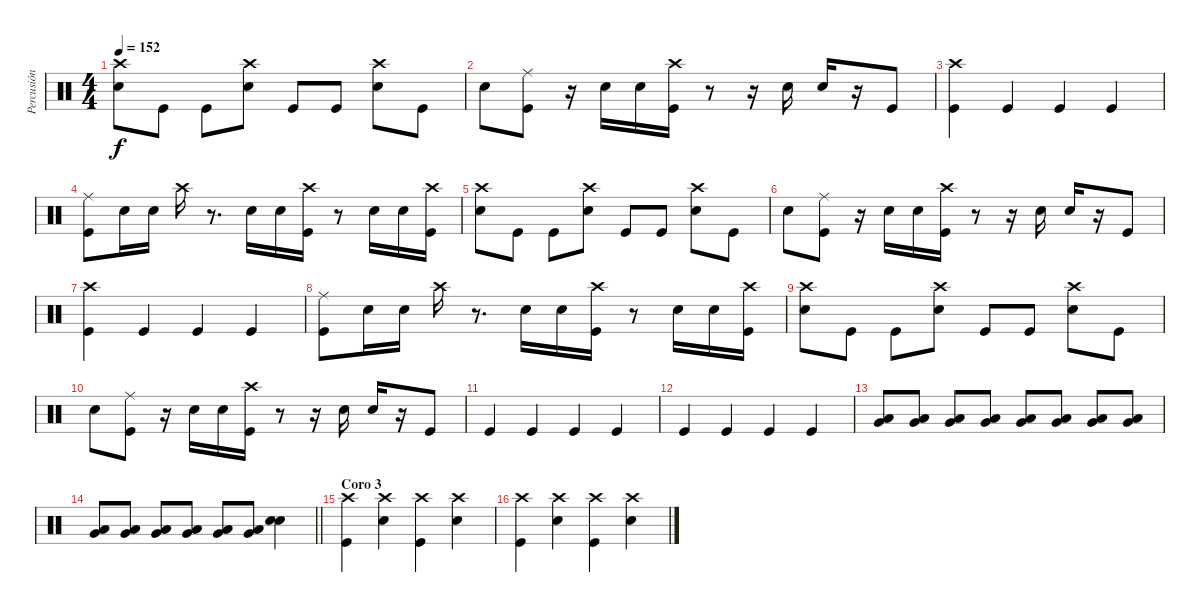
\track ("Percusión" "Percusión") {instrument percussion}
\staff {score}
\articulation defaults
\ts (4 4)
\tempo 152
\clef neutral
\ks c
("Snare (hit) 2" "Crash high (hit)").8{dy f} "Kick (hit)".8 "Kick (hit)".8 ("Snare (hit) 2" "Crash high (hit)").8 "Kick (hit)".8 "Kick (hit)".8 ("Snare (hit) 2" "Crash high (hit)").8 "Kick (hit)".8 |
"Snare (hit) 2".8 ("Kick (hit)" "Ride (middle)").8 r.16 "Snare (hit) 2".16 "Snare (hit) 2".16 ("Kick (hit)" "Crash high (hit)").16 r.8 r.16 "Snare (hit) 2".16 "Snare (hit) 2".16 r.16 "Kick (hit)".8 |
("Crash high (hit)" "Kick (hit)").4 "Kick (hit)".4 "Kick (hit)".4 "Kick (hit)".4 |
("Kick (hit)" "Ride (middle)").8 "Snare (hit) 2".16 "Snare (hit) 2".16 "Crash high (hit)".16 r.8{d} "Snare (hit) 2".16 "Snare (hit) 2".16 ("Kick (hit)" "Crash high (hit)").16 r.8 "Snare (hit) 2".16 "Snare (hit) 2".16 ("Kick (hit)" "Crash high (hit)").16 |
("Snare (hit) 2" "Crash high (hit)").8 "Kick (hit)".8 "Kick (hit)".8 ("Snare (hit) 2" "Crash high (hit)").8 "Kick (hit)".8 "Kick (hit)".8 ("Snare (hit) 2" "Crash high (hit)").8 "Kick (hit)".8 |
"Snare (hit) 2".8 ("Kick (hit)" "Ride (middle)").8 r.16 "Snare (hit) 2".16 "Snare (hit) 2".16 ("Kick (hit)" "Crash high (hit)").16 r.8 r.16 "Snare (hit) 2".16 "Snare (hit) 2".16 r.16 "Kick (hit)".8 |
("Crash high (hit)" "Kick (hit)").4 "Kick (hit)".4 "Kick (hit)".4 "Kick (hit)".4 |
("Kick (hit)" "Ride (middle)").8 "Snare (hit) 2".16 "Snare (hit) 2".16 "Crash high (hit)".16 r.8{d} "Snare (hit) 2".16 "Snare (hit) 2".16 ("Kick (hit)" "Crash high (hit)").16 r.8 "Snare (hit) 2".16 "Snare (hit) 2".16 ("Kick (hit)" "Crash high (hit)").16 |
("Snare (hit) 2" "Crash high (hit)").8 "Kick (hit)".8 "Kick (hit)".8 ("Snare (hit) 2" "Crash high (hit)").8 "Kick (hit)".8 "Kick (hit)".8 ("Snare (hit) 2" "Crash high (hit)").8 "Kick (hit)".8 |
"Snare (hit) 2".8 ("Kick (hit)" "Ride (middle)").8 r.16 "Snare (hit) 2".16 "Snare (hit) 2".16 ("Kick (hit)" "Crash high (hit)").16 r.8 r.16 "Snare (hit) 2".16 "Snare (hit) 2".16 r.16 "Kick (hit)".8 |
"Kick (hit)".4 "Kick (hit)".4 "Kick (hit)".4 "Kick (hit)".4 |
"Kick (hit)".4 "Kick (hit)".4 "Kick (hit)".4 "Kick (hit)".4 |
("Low Floor Tom (hit)" "Very Low Tom (hit)").8 ("Low Floor Tom (hit)" "Very Low Tom (hit)").8 ("Low Floor Tom (hit)" "Very Low Tom (hit)").8 ("Low Floor Tom (hit)" "Very Low Tom (hit)").8 ("Low Floor Tom (hit)" "Very Low Tom (hit)").8 ("Low Floor Tom (hit)" "Very Low Tom (hit)").8 ("Low Floor Tom (hit)" "Very Low Tom (hit)").8 ("Low Floor Tom (hit)" "Very Low Tom (hit)").8 |
\barLineRight lightlight
("Low Floor Tom (hit)" "Very Low Tom (hit)").8 ("Low Floor Tom (hit)" "Very Low Tom (hit)").8 ("Low Floor Tom (hit)" "Very Low Tom (hit)").8 ("Low Floor Tom (hit)" "Very Low Tom (hit)").8 ("Low Floor Tom (hit)" "Very Low Tom (hit)").8 ("Low Floor Tom (hit)" "Very Low Tom (hit)").8 ("Snare (hit) 2" "Snare (hit) 2").4 |
\section ("" "Coro 3")
("Kick (hit)" "Crash high (hit)").4 ("Crash high (hit)" "Snare (hit) 2").4 ("Crash high (hit)" "Kick (hit)").4 ("Crash high (hit)" "Snare (hit) 2").4 |
("Crash high (hit)" "Kick (hit)").4 ("Crash high (hit)" "Snare (hit) 2").4 ("Crash high (hit)" "Kick (hit)").4 ("Crash high (hit)" "Snare (hit) 2").4
